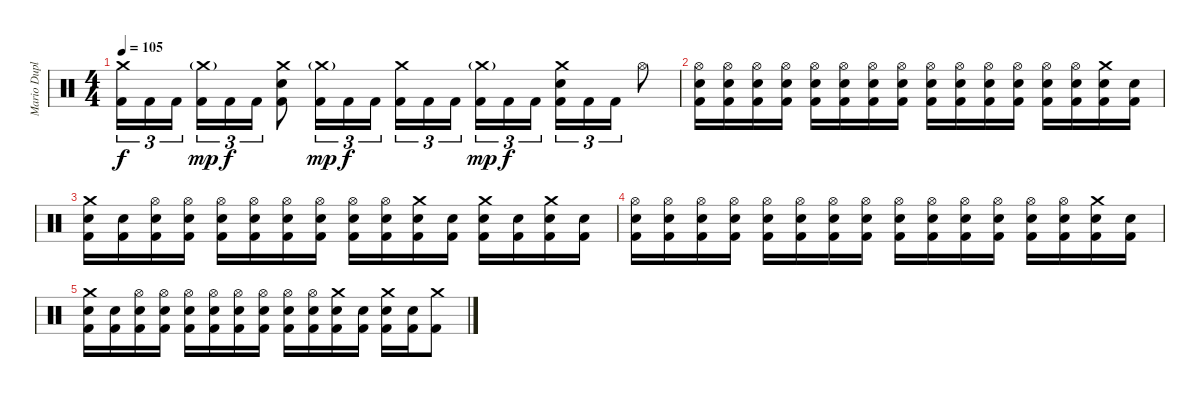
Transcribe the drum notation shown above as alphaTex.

\track ("Mario Duplantier" "Mario Dupl") {instrument percussion}
\staff {score}
\articulation defaults
\ts (4 4)
\tempo 105
\clef neutral
\ks c
("Crash medium (hit)" "Kick (hit) 2").16{tu (3 2) dy f} "Kick (hit) 2".16{tu (3 2)} "Kick (hit) 2".16{tu (3 2)} ("Crash medium (hit)"{g} "Kick (hit) 2").16{tu (3 2) dy mp} "Kick (hit) 2".16{tu (3 2) dy f} "Kick (hit) 2".16{tu (3 2)} ("Crash medium (hit)" "Electric Snare (hit)" "Kick (hit) 2").8 ("Crash medium (hit)"{g} "Kick (hit) 2").16{tu (3 2) dy mp} "Kick (hit) 2".16{tu (3 2) dy f} "Kick (hit) 2".16{tu (3 2)} ("Crash medium (hit)" "Kick (hit) 2").16{tu (3 2)} "Kick (hit) 2".16{tu (3 2)} "Kick (hit) 2".16{tu (3 2)} ("Crash medium (hit)"{g} "Kick (hit) 2").16{tu (3 2) dy mp} "Kick (hit) 2".16{tu (3 2) dy f} "Kick (hit) 2".16{tu (3 2)} ("Crash medium (hit)" "Electric Snare (hit)" "Kick (hit) 2").16{tu (3 2)} "Kick (hit) 2".16{tu (3 2)} "Kick (hit) 2".16{tu (3 2)} "Hi-Hat (open)".8 |
("Hi-Hat (open)" "Electric Snare (hit)" "Kick (hit) 2").16 ("Hi-Hat (open)" "Electric Snare (hit)" "Kick (hit) 2").16 ("Hi-Hat (open)" "Electric Snare (hit)" "Kick (hit) 2").16 ("Hi-Hat (open)" "Electric Snare (hit)" "Kick (hit) 2").16 ("Hi-Hat (open)" "Electric Snare (hit)" "Kick (hit) 2").16 ("Hi-Hat (open)" "Electric Snare (hit)" "Kick (hit) 2").16 ("Hi-Hat (open)" "Electric Snare (hit)" "Kick (hit) 2").16 ("Hi-Hat (open)" "Electric Snare (hit)" "Kick (hit) 2").16 ("Hi-Hat (open)" "Electric Snare (hit)" "Kick (hit) 2").16 ("Hi-Hat (open)" "Electric Snare (hit)" "Kick (hit) 2").16 ("Hi-Hat (open)" "Electric Snare (hit)" "Kick (hit) 2").16 ("Hi-Hat (open)" "Electric Snare (hit)" "Kick (hit) 2").16 ("Hi-Hat (open)" "Electric Snare (hit)" "Kick (hit) 2").16 ("Hi-Hat (open)" "Electric Snare (hit)" "Kick (hit) 2").16 ("Crash medium (hit)" "Electric Snare (hit)" "Kick (hit) 2").16 ("Electric Snare (hit)" "Kick (hit) 2").16 |
("Crash medium (hit)" "Electric Snare (hit)" "Kick (hit) 2").16 ("Electric Snare (hit)" "Kick (hit) 2").16 ("Hi-Hat (open)" "Electric Snare (hit)" "Kick (hit) 2").16 ("Hi-Hat (open)" "Electric Snare (hit)" "Kick (hit) 2").16 ("Hi-Hat (open)" "Electric Snare (hit)" "Kick (hit) 2").16 ("Hi-Hat (open)" "Electric Snare (hit)" "Kick (hit) 2").16 ("Hi-Hat (open)" "Electric Snare (hit)" "Kick (hit) 2").16 ("Hi-Hat (open)" "Electric Snare (hit)" "Kick (hit) 2").16 ("Hi-Hat (open)" "Electric Snare (hit)" "Kick (hit) 2").16 ("Hi-Hat (open)" "Electric Snare (hit)" "Kick (hit) 2").16 ("Crash medium (hit)" "Electric Snare (hit)" "Kick (hit) 2").16 ("Electric Snare (hit)" "Kick (hit) 2").16 ("Crash medium (hit)" "Electric Snare (hit)" "Kick (hit) 2").16 ("Electric Snare (hit)" "Kick (hit) 2").16 ("Crash medium (hit)" "Electric Snare (hit)" "Kick (hit) 2").16 ("Electric Snare (hit)" "Kick (hit) 2").16 |
("Hi-Hat (open)" "Electric Snare (hit)" "Kick (hit) 2").16 ("Hi-Hat (open)" "Electric Snare (hit)" "Kick (hit) 2").16 ("Hi-Hat (open)" "Electric Snare (hit)" "Kick (hit) 2").16 ("Hi-Hat (open)" "Electric Snare (hit)" "Kick (hit) 2").16 ("Hi-Hat (open)" "Electric Snare (hit)" "Kick (hit) 2").16 ("Hi-Hat (open)" "Electric Snare (hit)" "Kick (hit) 2").16 ("Hi-Hat (open)" "Electric Snare (hit)" "Kick (hit) 2").16 ("Hi-Hat (open)" "Electric Snare (hit)" "Kick (hit) 2").16 ("Hi-Hat (open)" "Electric Snare (hit)" "Kick (hit) 2").16 ("Hi-Hat (open)" "Electric Snare (hit)" "Kick (hit) 2").16 ("Hi-Hat (open)" "Electric Snare (hit)" "Kick (hit) 2").16 ("Hi-Hat (open)" "Electric Snare (hit)" "Kick (hit) 2").16 ("Hi-Hat (open)" "Electric Snare (hit)" "Kick (hit) 2").16 ("Hi-Hat (open)" "Electric Snare (hit)" "Kick (hit) 2").16 ("Crash medium (hit)" "Electric Snare (hit)" "Kick (hit) 2").16 ("Electric Snare (hit)" "Kick (hit) 2").16 |
("Crash medium (hit)" "Electric Snare (hit)" "Kick (hit) 2").16 ("Electric Snare (hit)" "Kick (hit) 2").16 ("Hi-Hat (open)" "Electric Snare (hit)" "Kick (hit) 2").16 ("Hi-Hat (open)" "Electric Snare (hit)" "Kick (hit) 2").16 ("Hi-Hat (open)" "Electric Snare (hit)" "Kick (hit) 2").16 ("Hi-Hat (open)" "Electric Snare (hit)" "Kick (hit) 2").16 ("Hi-Hat (open)" "Electric Snare (hit)" "Kick (hit) 2").16 ("Hi-Hat (open)" "Electric Snare (hit)" "Kick (hit) 2").16 ("Hi-Hat (open)" "Electric Snare (hit)" "Kick (hit) 2").16 ("Hi-Hat (open)" "Electric Snare (hit)" "Kick (hit) 2").16 ("Crash medium (hit)" "Electric Snare (hit)" "Kick (hit) 2").16 ("Electric Snare (hit)" "Kick (hit) 2").16 ("Crash medium (hit)" "Electric Snare (hit)" "Kick (hit) 2").16 ("Electric Snare (hit)" "Kick (hit) 2").16 ("Crash medium (hit)" "Kick (hit) 2").8
